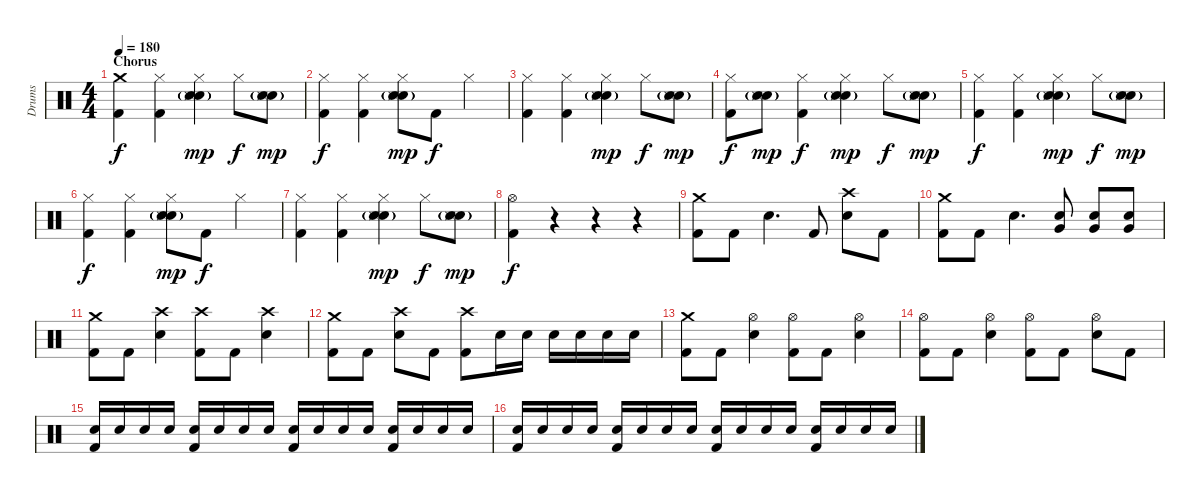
\track ("Drums" "Drums") {instrument percussion}
\staff {score}
\articulation defaults
\ts (4 4)
\section ("" "Chorus")
\tempo 180
\clef neutral
\ks c
("Crash medium (hit)" "Kick (hit) 2").4{dy f volume 9 balance 4} ("Hi-Hat (closed)" "Kick (hit) 2").4 ("Hi-Hat (closed)" "Snare (hit) 2"{g} "Snare (side stick) 3" "Electric Snare (hit)"{g}).4{dy mp} "Hi-Hat (closed)".8{dy f} ("Snare (hit) 2"{g} "Snare (side stick) 3" "Electric Snare (hit)"{g}).8{dy mp} |
("Hi-Hat (closed)" "Kick (hit) 2").4{dy f} ("Hi-Hat (closed)" "Kick (hit) 2").4 ("Hi-Hat (closed)" "Snare (hit) 2"{g} "Snare (side stick) 3" "Electric Snare (hit)"{g}).8{dy mp} "Kick (hit) 2".8{dy f} "Hi-Hat (closed)".4 |
("Hi-Hat (closed)" "Kick (hit) 2").4 ("Hi-Hat (closed)" "Kick (hit) 2").4 ("Hi-Hat (closed)" "Snare (hit) 2"{g} "Snare (side stick) 3" "Electric Snare (hit)"{g}).4{dy mp} "Hi-Hat (closed)".8{dy f} ("Snare (hit) 2"{g} "Snare (side stick) 3" "Electric Snare (hit)"{g}).8{dy mp} |
("Hi-Hat (closed)" "Kick (hit) 2").8{dy f} ("Snare (hit) 2"{g} "Snare (side stick) 3" "Electric Snare (hit)"{g}).8{dy mp} ("Hi-Hat (closed)" "Kick (hit) 2").4{dy f} ("Hi-Hat (closed)" "Snare (hit) 2"{g} "Snare (side stick) 3" "Electric Snare (hit)"{g}).4{dy mp} "Hi-Hat (closed)".8{dy f} ("Snare (hit) 2"{g} "Snare (side stick) 3" "Electric Snare (hit)"{g}).8{dy mp} |
("Hi-Hat (closed)" "Kick (hit) 2").4{dy f} ("Hi-Hat (closed)" "Kick (hit) 2").4 ("Hi-Hat (closed)" "Snare (hit) 2"{g} "Snare (side stick) 3" "Electric Snare (hit)"{g}).4{dy mp} "Hi-Hat (closed)".8{dy f} ("Snare (hit) 2"{g} "Snare (side stick) 3" "Electric Snare (hit)"{g}).8{dy mp} |
("Hi-Hat (closed)" "Kick (hit) 2").4{dy f} ("Hi-Hat (closed)" "Kick (hit) 2").4 ("Hi-Hat (closed)" "Snare (hit) 2"{g} "Snare (side stick) 3" "Electric Snare (hit)"{g}).8{dy mp} "Kick (hit) 2".8{dy f} "Hi-Hat (closed)".4 |
("Hi-Hat (closed)" "Kick (hit) 2").4 ("Hi-Hat (closed)" "Kick (hit) 2").4 ("Hi-Hat (closed)" "Snare (hit) 2"{g} "Snare (side stick) 3" "Electric Snare (hit)"{g}).4{dy mp} "Hi-Hat (closed)".8{dy f} ("Snare (hit) 2"{g} "Snare (side stick) 3" "Electric Snare (hit)"{g}).8{dy mp} |
("Hi-Hat (open)" "Kick (hit) 2").4{dy f} r.4 r.4 r.4 |
("Crash medium (hit)" "Kick (hit) 2").8{volume 12 balance 8} "Kick (hit) 2".8 "Electric Snare (hit)".4{d} "Kick (hit) 2".8 ("Crash high (hit)" "Electric Snare (hit)").8 "Kick (hit) 2".8 |
("Crash medium (hit)" "Kick (hit) 2").8 "Kick (hit) 2".8 "Electric Snare (hit)".4{d} ("Electric Snare (hit)" "Very Low Tom (hit)").8 ("Electric Snare (hit)" "Very Low Tom (hit)").8 ("Electric Snare (hit)" "Very Low Tom (hit)").8 |
("Crash medium (hit)" "Kick (hit) 2").8 "Kick (hit) 2".8 ("Crash high (hit)" "Electric Snare (hit)").4 ("Crash high (hit)" "Kick (hit) 2").8 "Kick (hit) 2".8 ("Crash high (hit)" "Electric Snare (hit)").4 |
("Crash medium (hit)" "Kick (hit) 2").8 "Kick (hit) 2".8 ("Crash high (hit)" "Electric Snare (hit)").8 "Kick (hit) 2".8 ("Crash high (hit)" "Kick (hit) 2").8 "Electric Snare (hit)".16 "Electric Snare (hit)".16 "Electric Snare (hit)".16 "Electric Snare (hit)".16 "Electric Snare (hit)".16 "Electric Snare (hit)".16 |
("Crash medium (hit)" "Kick (hit) 2").8 "Kick (hit) 2".8 ("Hi-Hat (open)" "Electric Snare (hit)").4 ("Hi-Hat (open)" "Kick (hit) 2").8 "Kick (hit) 2".8 ("Hi-Hat (open)" "Electric Snare (hit)").4 |
("Hi-Hat (open)" "Kick (hit) 2").8 "Kick (hit) 2".8 ("Hi-Hat (open)" "Electric Snare (hit)").4 ("Hi-Hat (open)" "Kick (hit) 2").8 "Kick (hit) 2".8 ("Hi-Hat (open)" "Electric Snare (hit)").8 "Kick (hit) 2".8 |
("Electric Snare (hit)" "Kick (hit) 2").16{volume 9} "Electric Snare (hit)".16{volume 12} "Electric Snare (hit)".16 "Electric Snare (hit)".16 ("Electric Snare (hit)" "Kick (hit) 2").16 "Electric Snare (hit)".16 "Electric Snare (hit)".16 "Electric Snare (hit)".16 ("Electric Snare (hit)" "Kick (hit) 2").16 "Electric Snare (hit)".16 "Electric Snare (hit)".16 "Electric Snare (hit)".16 ("Electric Snare (hit)" "Kick (hit) 2").16 "Electric Snare (hit)".16 "Electric Snare (hit)".16 "Electric Snare (hit)".16 |
("Electric Snare (hit)" "Kick (hit) 2").16 "Electric Snare (hit)".16 "Electric Snare (hit)".16 "Electric Snare (hit)".16 ("Electric Snare (hit)" "Kick (hit) 2").16 "Electric Snare (hit)".16 "Electric Snare (hit)".16 "Electric Snare (hit)".16 ("Electric Snare (hit)" "Kick (hit) 2").16 "Electric Snare (hit)".16 "Electric Snare (hit)".16 "Electric Snare (hit)".16 ("Electric Snare (hit)" "Kick (hit) 2").16 "Electric Snare (hit)".16 "Electric Snare (hit)".16 "Electric Snare (hit)".16
